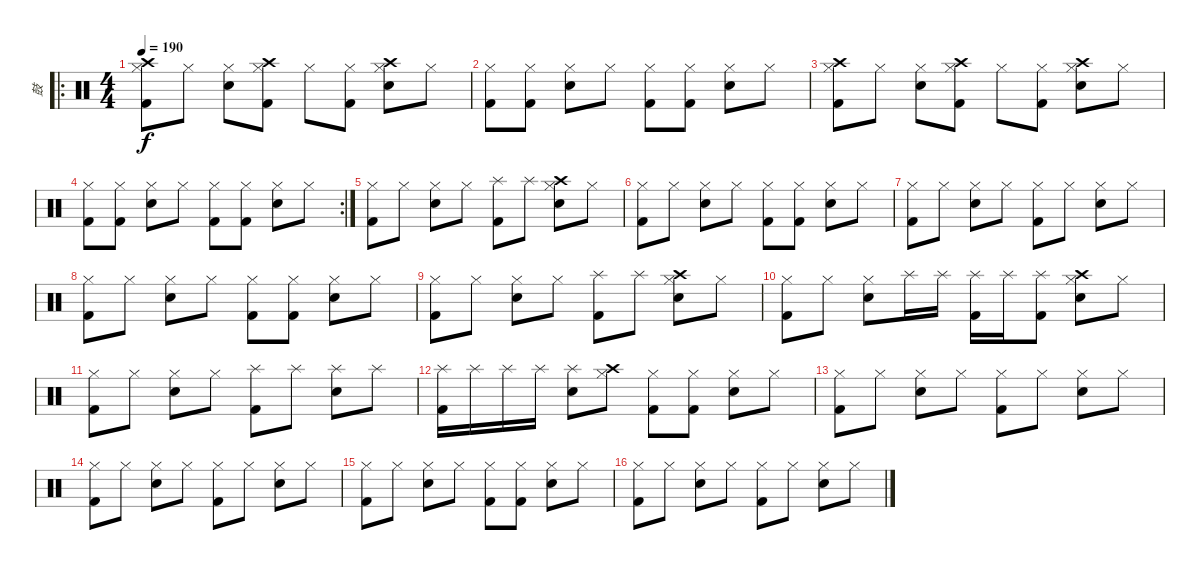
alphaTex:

\track ("鼓" "鼓") {instrument percussion}
\staff {score}
\articulation defaults
\ro
\ts (4 4)
\tempo 190
\clef neutral
\ks c
("Crash high (hit)" "Hi-Hat (closed)" "Kick (hit) 2").8{dy f} "Hi-Hat (closed)".8 ("Hi-Hat (closed)" "Snare (hit) 2").8 ("Crash high (hit)" "Hi-Hat (closed)" "Kick (hit) 2").8 "Hi-Hat (closed)".8 ("Hi-Hat (closed)" "Kick (hit) 2").8 ("Crash high (hit)" "Hi-Hat (closed)" "Snare (hit) 2").8 "Hi-Hat (closed)".8 |
("Hi-Hat (closed)" "Kick (hit) 2").8 ("Hi-Hat (closed)" "Kick (hit) 2").8 ("Hi-Hat (closed)" "Snare (hit) 2").8 "Hi-Hat (closed)".8 ("Hi-Hat (closed)" "Kick (hit) 2").8 ("Hi-Hat (closed)" "Kick (hit) 2").8 ("Hi-Hat (closed)" "Snare (hit) 2").8 "Hi-Hat (closed)".8 |
("Crash high (hit)" "Hi-Hat (closed)" "Kick (hit) 2").8 "Hi-Hat (closed)".8 ("Hi-Hat (closed)" "Snare (hit) 2").8 ("Crash high (hit)" "Hi-Hat (closed)" "Kick (hit) 2").8 "Hi-Hat (closed)".8 ("Hi-Hat (closed)" "Kick (hit) 2").8 ("Crash high (hit)" "Hi-Hat (closed)" "Snare (hit) 2").8 "Hi-Hat (closed)".8 |
\rc 2
("Hi-Hat (closed)" "Kick (hit) 2").8 ("Hi-Hat (closed)" "Kick (hit) 2").8 ("Hi-Hat (closed)" "Snare (hit) 2").8 "Hi-Hat (closed)".8 ("Hi-Hat (closed)" "Kick (hit) 2").8 ("Hi-Hat (closed)" "Kick (hit) 2").8 ("Hi-Hat (closed)" "Snare (hit) 2").8 "Hi-Hat (closed)".8 |
("Hi-Hat (closed)" "Kick (hit) 2").8 "Hi-Hat (closed)".8 ("Hi-Hat (closed)" "Snare (hit) 2").8 "Hi-Hat (closed)".8 ("Splash (hit)" "Kick (hit) 2").8 "Splash (hit)".8 ("Crash high (hit)" "Hi-Hat (closed)" "Snare (hit) 2").8 "Hi-Hat (closed)".8 |
("Hi-Hat (closed)" "Kick (hit) 2").8 "Hi-Hat (closed)".8 ("Hi-Hat (closed)" "Snare (hit) 2").8 "Hi-Hat (closed)".8 ("Hi-Hat (closed)" "Kick (hit) 2").8 ("Hi-Hat (closed)" "Kick (hit) 2").8 ("Hi-Hat (closed)" "Snare (hit) 2").8 "Hi-Hat (closed)".8 |
("Hi-Hat (closed)" "Kick (hit) 2").8 "Hi-Hat (closed)".8 ("Hi-Hat (closed)" "Snare (hit) 2").8 "Hi-Hat (closed)".8 ("Hi-Hat (closed)" "Kick (hit) 2").8 "Hi-Hat (closed)".8 ("Hi-Hat (closed)" "Snare (hit) 2").8 "Hi-Hat (closed)".8 |
("Hi-Hat (closed)" "Kick (hit) 2").8 "Hi-Hat (closed)".8 ("Hi-Hat (closed)" "Snare (hit) 2").8 "Hi-Hat (closed)".8 ("Hi-Hat (closed)" "Kick (hit) 2").8 ("Hi-Hat (closed)" "Kick (hit) 2").8 ("Hi-Hat (closed)" "Snare (hit) 2").8 "Hi-Hat (closed)".8 |
("Hi-Hat (closed)" "Kick (hit) 2").8 "Hi-Hat (closed)".8 ("Hi-Hat (closed)" "Snare (hit) 2").8 "Hi-Hat (closed)".8 ("Splash (hit)" "Kick (hit) 2").8 "Splash (hit)".8 ("Crash high (hit)" "Hi-Hat (closed)" "Snare (hit) 2").8 "Hi-Hat (closed)".8 |
("Hi-Hat (closed)" "Kick (hit) 2").8 "Hi-Hat (closed)".8 ("Hi-Hat (closed)" "Snare (hit) 2").8 "Splash (hit)".16 "Splash (hit)".16 ("Splash (hit)" "Kick (hit) 2").16 "Splash (hit)".16 ("Splash (hit)" "Kick (hit) 2").8 ("Crash high (hit)" "Hi-Hat (closed)" "Snare (hit) 2").8 "Hi-Hat (closed)".8 |
("Hi-Hat (closed)" "Kick (hit) 2").8 "Hi-Hat (closed)".8 ("Hi-Hat (closed)" "Snare (hit) 2").8 "Hi-Hat (closed)".8 ("Splash (hit)" "Kick (hit) 2").8 "Splash (hit)".8 ("Splash (hit)" "Snare (hit) 2").8 "Splash (hit)".8 |
("Splash (hit)" "Kick (hit) 2").16 "Splash (hit)".16 "Splash (hit)".16 "Splash (hit)".16 ("Splash (hit)" "Snare (hit) 2").8 ("Crash high (hit)" "Hi-Hat (closed)").8 ("Hi-Hat (closed)" "Kick (hit) 2").8 ("Hi-Hat (closed)" "Kick (hit) 2").8 ("Hi-Hat (closed)" "Snare (hit) 2").8 "Hi-Hat (closed)".8 |
("Hi-Hat (closed)" "Kick (hit) 2").8 "Hi-Hat (closed)".8 ("Hi-Hat (closed)" "Snare (hit) 2").8 "Hi-Hat (closed)".8 ("Hi-Hat (closed)" "Kick (hit) 2").8 "Hi-Hat (closed)".8 ("Hi-Hat (closed)" "Snare (hit) 2").8 "Hi-Hat (closed)".8 |
("Hi-Hat (closed)" "Kick (hit) 2").8 "Hi-Hat (closed)".8 ("Hi-Hat (closed)" "Snare (hit) 2").8 "Hi-Hat (closed)".8 ("Hi-Hat (closed)" "Kick (hit) 2").8 "Hi-Hat (closed)".8 ("Hi-Hat (closed)" "Snare (hit) 2").8 "Hi-Hat (closed)".8 |
("Hi-Hat (closed)" "Kick (hit) 2").8 "Hi-Hat (closed)".8 ("Hi-Hat (closed)" "Snare (hit) 2").8 "Hi-Hat (closed)".8 ("Hi-Hat (closed)" "Kick (hit) 2").8 ("Hi-Hat (closed)" "Kick (hit) 2").8 ("Hi-Hat (closed)" "Snare (hit) 2").8 "Hi-Hat (closed)".8 |
("Hi-Hat (closed)" "Kick (hit) 2").8 "Hi-Hat (closed)".8 ("Hi-Hat (closed)" "Snare (hit) 2").8 "Hi-Hat (closed)".8 ("Hi-Hat (closed)" "Kick (hit) 2").8 "Hi-Hat (closed)".8 ("Hi-Hat (closed)" "Snare (hit) 2").8 "Hi-Hat (closed)".8
